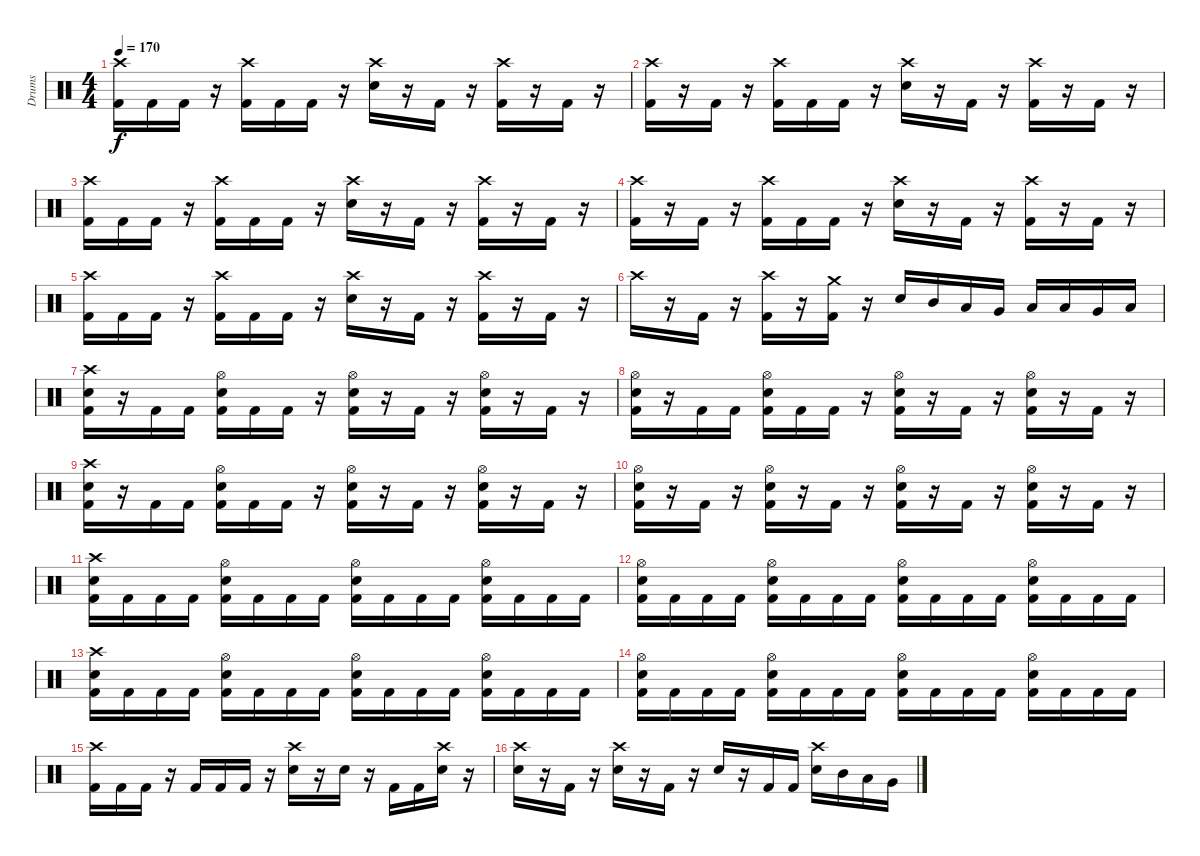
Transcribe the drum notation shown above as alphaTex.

\track ("Drums" "Drums") {instrument percussion}
\staff {score}
\articulation defaults
\ts (4 4)
\tempo 170
\clef neutral
\ks c
("Crash high (hit)" "Kick (hit) 2").16{dy f} "Kick (hit) 2".16 "Kick (hit) 2".16 r.16 ("Crash high (hit)" "Kick (hit) 2").16 "Kick (hit) 2".16 "Kick (hit) 2".16 r.16 ("Crash high (hit)" "Electric Snare (hit)").16 r.16 "Kick (hit) 2".16 r.16 ("Crash high (hit)" "Kick (hit) 2").16 r.16 "Kick (hit) 2".16 r.16 |
("Crash high (hit)" "Kick (hit) 2").16 r.16 "Kick (hit) 2".16 r.16 ("Crash high (hit)" "Kick (hit) 2").16 "Kick (hit) 2".16 "Kick (hit) 2".16 r.16 ("Crash high (hit)" "Electric Snare (hit)").16 r.16 "Kick (hit) 2".16 r.16 ("Crash high (hit)" "Kick (hit) 2").16 r.16 "Kick (hit) 2".16 r.16 |
("Crash high (hit)" "Kick (hit) 2").16 "Kick (hit) 2".16 "Kick (hit) 2".16 r.16 ("Crash high (hit)" "Kick (hit) 2").16 "Kick (hit) 2".16 "Kick (hit) 2".16 r.16 ("Crash high (hit)" "Electric Snare (hit)").16 r.16 "Kick (hit) 2".16 r.16 ("Crash high (hit)" "Kick (hit) 2").16 r.16 "Kick (hit) 2".16 r.16 |
("Crash high (hit)" "Kick (hit) 2").16 r.16 "Kick (hit) 2".16 r.16 ("Crash high (hit)" "Kick (hit) 2").16 "Kick (hit) 2".16 "Kick (hit) 2".16 r.16 ("Crash high (hit)" "Electric Snare (hit)").16 r.16 "Kick (hit) 2".16 r.16 ("Crash high (hit)" "Kick (hit) 2").16 r.16 "Kick (hit) 2".16 r.16 |
("Crash high (hit)" "Kick (hit) 2").16 "Kick (hit) 2".16 "Kick (hit) 2".16 r.16 ("Crash high (hit)" "Kick (hit) 2").16 "Kick (hit) 2".16 "Kick (hit) 2".16 r.16 ("Crash high (hit)" "Electric Snare (hit)").16 r.16 "Kick (hit) 2".16 r.16 ("Crash high (hit)" "Kick (hit) 2").16 r.16 "Kick (hit) 2".16 r.16 |
"Crash high (hit)".16 r.16 "Kick (hit) 2".16 r.16 ("Crash high (hit)" "Kick (hit) 2").16 r.16 ("Crash medium (hit)" "Kick (hit) 2").16 r.16 "Electric Snare (hit)".16 "Mid Tom (hit)".16 "Low Tom (hit)".16 "Very Low Tom (hit)".16 "Low Floor Tom (hit)".16 "Low Tom (hit)".16 "Very Low Tom (hit)".16 "Low Floor Tom (hit)".16 |
("Crash high (hit)" "Electric Snare (hit)" "Kick (hit) 2").16 r.16 "Kick (hit) 2".16 "Kick (hit) 2".16 ("Hi-Hat (open)" "Electric Snare (hit)" "Kick (hit) 2").16 "Kick (hit) 2".16 "Kick (hit) 2".16 r.16 ("Hi-Hat (open)" "Electric Snare (hit)" "Kick (hit) 2").16 r.16 "Kick (hit) 2".16 r.16 ("Hi-Hat (open)" "Electric Snare (hit)" "Kick (hit) 2").16 r.16 "Kick (hit) 2".16 r.16 |
("Hi-Hat (open)" "Electric Snare (hit)" "Kick (hit) 2").16 r.16 "Kick (hit) 2".16 "Kick (hit) 2".16 ("Hi-Hat (open)" "Electric Snare (hit)" "Kick (hit) 2").16 "Kick (hit) 2".16 "Kick (hit) 2".16 r.16 ("Hi-Hat (open)" "Electric Snare (hit)" "Kick (hit) 2").16 r.16 "Kick (hit) 2".16 r.16 ("Hi-Hat (open)" "Electric Snare (hit)" "Kick (hit) 2").16 r.16 "Kick (hit) 2".16 r.16 |
("Crash high (hit)" "Electric Snare (hit)" "Kick (hit) 2").16 r.16 "Kick (hit) 2".16 "Kick (hit) 2".16 ("Hi-Hat (open)" "Electric Snare (hit)" "Kick (hit) 2").16 "Kick (hit) 2".16 "Kick (hit) 2".16 r.16 ("Hi-Hat (open)" "Electric Snare (hit)" "Kick (hit) 2").16 r.16 "Kick (hit) 2".16 r.16 ("Hi-Hat (open)" "Electric Snare (hit)" "Kick (hit) 2").16 r.16 "Kick (hit) 2".16 r.16 |
("Hi-Hat (open)" "Electric Snare (hit)" "Kick (hit) 2").16 r.16 "Kick (hit) 2".16 r.16 ("Hi-Hat (open)" "Electric Snare (hit)" "Kick (hit) 2").16 r.16 "Kick (hit) 2".16 r.16 ("Hi-Hat (open)" "Electric Snare (hit)" "Kick (hit) 2").16 r.16 "Kick (hit) 2".16 r.16 ("Hi-Hat (open)" "Electric Snare (hit)" "Kick (hit) 2").16 r.16 "Kick (hit) 2".16 r.16 |
("Crash high (hit)" "Electric Snare (hit)" "Kick (hit) 2").16 "Kick (hit) 2".16 "Kick (hit) 2".16 "Kick (hit) 2".16 ("Hi-Hat (open)" "Electric Snare (hit)" "Kick (hit) 2").16 "Kick (hit) 2".16 "Kick (hit) 2".16 "Kick (hit) 2".16 ("Hi-Hat (open)" "Electric Snare (hit)" "Kick (hit) 2").16 "Kick (hit) 2".16 "Kick (hit) 2".16 "Kick (hit) 2".16 ("Hi-Hat (open)" "Electric Snare (hit)" "Kick (hit) 2").16 "Kick (hit) 2".16 "Kick (hit) 2".16 "Kick (hit) 2".16 |
("Hi-Hat (open)" "Electric Snare (hit)" "Kick (hit) 2").16 "Kick (hit) 2".16 "Kick (hit) 2".16 "Kick (hit) 2".16 ("Hi-Hat (open)" "Electric Snare (hit)" "Kick (hit) 2").16 "Kick (hit) 2".16 "Kick (hit) 2".16 "Kick (hit) 2".16 ("Hi-Hat (open)" "Electric Snare (hit)" "Kick (hit) 2").16 "Kick (hit) 2".16 "Kick (hit) 2".16 "Kick (hit) 2".16 ("Hi-Hat (open)" "Electric Snare (hit)" "Kick (hit) 2").16 "Kick (hit) 2".16 "Kick (hit) 2".16 "Kick (hit) 2".16 |
("Crash high (hit)" "Electric Snare (hit)" "Kick (hit) 2").16 "Kick (hit) 2".16 "Kick (hit) 2".16 "Kick (hit) 2".16 ("Hi-Hat (open)" "Electric Snare (hit)" "Kick (hit) 2").16 "Kick (hit) 2".16 "Kick (hit) 2".16 "Kick (hit) 2".16 ("Hi-Hat (open)" "Electric Snare (hit)" "Kick (hit) 2").16 "Kick (hit) 2".16 "Kick (hit) 2".16 "Kick (hit) 2".16 ("Hi-Hat (open)" "Electric Snare (hit)" "Kick (hit) 2").16 "Kick (hit) 2".16 "Kick (hit) 2".16 "Kick (hit) 2".16 |
("Hi-Hat (open)" "Electric Snare (hit)" "Kick (hit) 2").16 "Kick (hit) 2".16 "Kick (hit) 2".16 "Kick (hit) 2".16 ("Hi-Hat (open)" "Electric Snare (hit)" "Kick (hit) 2").16 "Kick (hit) 2".16 "Kick (hit) 2".16 "Kick (hit) 2".16 ("Hi-Hat (open)" "Electric Snare (hit)" "Kick (hit) 2").16 "Kick (hit) 2".16 "Kick (hit) 2".16 "Kick (hit) 2".16 ("Hi-Hat (open)" "Electric Snare (hit)" "Kick (hit) 2").16 "Kick (hit) 2".16 "Kick (hit) 2".16 "Kick (hit) 2".16 |
("Crash high (hit)" "Kick (hit) 2").16 "Kick (hit) 2".16 "Kick (hit) 2".16 r.16 "Kick (hit) 2".16 "Kick (hit) 2".16 "Kick (hit) 2".16 r.16 ("Crash high (hit)" "Electric Snare (hit)").16 r.16 "Electric Snare (hit)".16 r.16 "Kick (hit) 2".16 "Kick (hit) 2".16 ("Crash high (hit)" "Electric Snare (hit)").16 r.16 |
("Crash high (hit)" "Electric Snare (hit)").16 r.16 "Kick (hit) 2".16 r.16 ("Crash high (hit)" "Electric Snare (hit)").16 r.16 "Kick (hit) 2".16 r.16 "Electric Snare (hit)".16 r.16 "Kick (hit) 2".16 "Kick (hit) 2".16 ("Crash high (hit)" "Electric Snare (hit)").16 "Mid Tom (hit)".16 "Low Tom (hit)".16 "Very Low Tom (hit)".16
